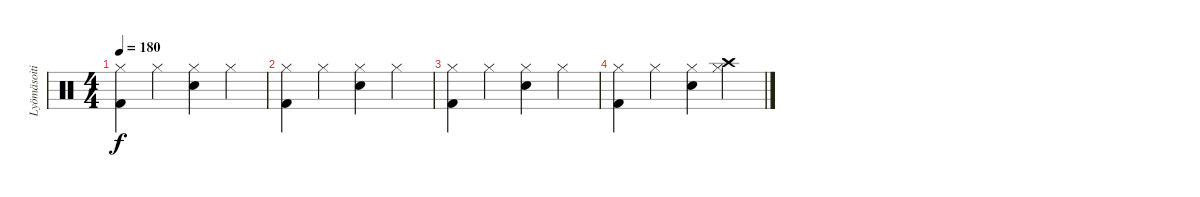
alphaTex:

\track ("Lyömäsoitin" "Lyömäsoiti") {instrument percussion}
\staff {score}
\articulation defaults
\ts (4 4)
\tempo 180
\clef neutral
\ks c
("Hi-Hat (closed)" "Kick (hit) 2").4{dy f} "Hi-Hat (closed)".4 ("Hi-Hat (closed)" "Electric Snare (hit)").4 "Hi-Hat (closed)".4 |
("Hi-Hat (closed)" "Kick (hit) 2").4 "Hi-Hat (closed)".4 ("Hi-Hat (closed)" "Electric Snare (hit)").4 "Hi-Hat (closed)".4 |
("Hi-Hat (closed)" "Kick (hit) 2").4 "Hi-Hat (closed)".4 ("Hi-Hat (closed)" "Electric Snare (hit)").4 "Hi-Hat (closed)".4 |
("Hi-Hat (closed)" "Kick (hit) 2").4 "Hi-Hat (closed)".4 ("Hi-Hat (closed)" "Electric Snare (hit)").4 ("Crash high (hit)" "Hi-Hat (closed)").4
